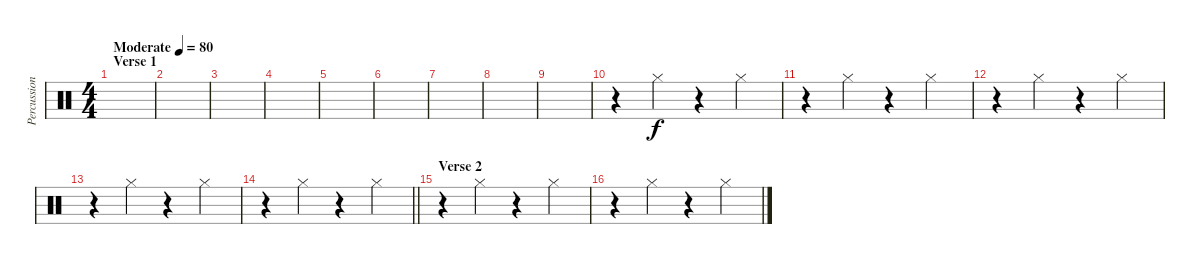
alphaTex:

\track ("Percussion" "Percussion") {instrument percussion}
\staff {score}
\articulation defaults
\ts (4 4)
\section ("" "Verse 1")
\tempo (80 "Moderate")
\clef neutral
\ks c
|
|
|
|
|
|
|
|
|
r.4 "Hi-Hat (closed)".4 r.4 "Hi-Hat (closed)".4 |
r.4 "Hi-Hat (closed)".4 r.4 "Hi-Hat (closed)".4 |
r.4 "Hi-Hat (closed)".4 r.4 "Hi-Hat (closed)".4 |
r.4 "Hi-Hat (closed)".4 r.4 "Hi-Hat (closed)".4 |
\barLineRight lightlight
r.4 "Hi-Hat (closed)".4 r.4 "Hi-Hat (closed)".4 |
\section ("" "Verse 2")
r.4 "Hi-Hat (closed)".4 r.4 "Hi-Hat (closed)".4 |
r.4 "Hi-Hat (closed)".4 r.4 "Hi-Hat (closed)".4
